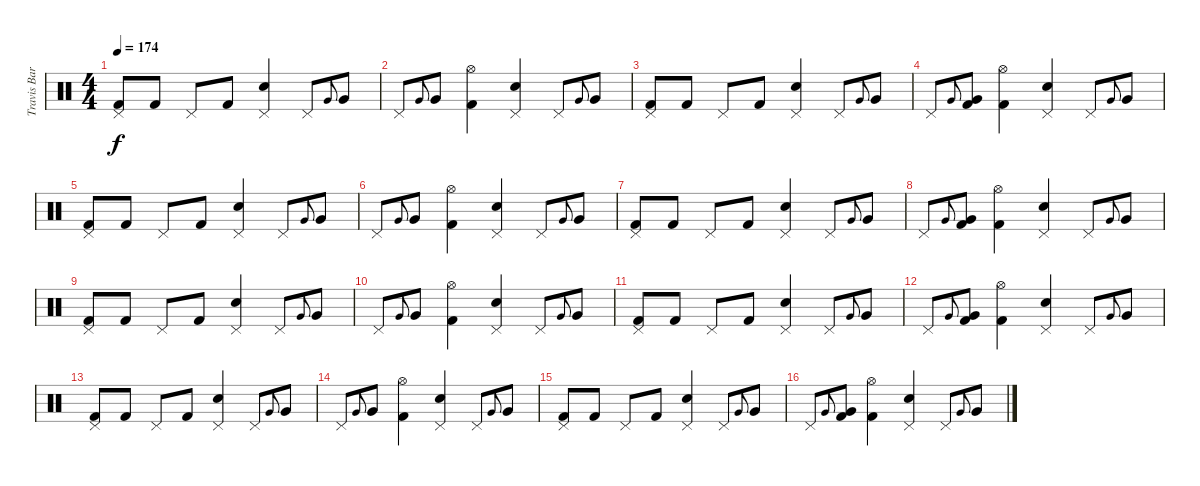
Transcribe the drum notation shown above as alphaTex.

\track ("Travis Barker - Drums" "Travis Bar") {instrument percussion}
\staff {score}
\articulation defaults
\ts (4 4)
\tempo 174
\clef neutral
\ks c
("Pedal Hi-Hat (hit)" "Kick (hit) 2").8{dy f} "Kick (hit) 2".8 "Pedal Hi-Hat (hit)".8 "Kick (hit) 2".8 ("Pedal Hi-Hat (hit)" "Electric Snare (hit)").4 "Pedal Hi-Hat (hit)".8 "Very Low Tom (hit)".8{gr onbeat} "Very Low Tom (hit)".8 |
"Pedal Hi-Hat (hit)".8 "Very Low Tom (hit)".8{gr onbeat} "Very Low Tom (hit)".8 ("Hi-Hat (open)" "Kick (hit) 2").4 ("Pedal Hi-Hat (hit)" "Electric Snare (hit)").4 "Pedal Hi-Hat (hit)".8 "Very Low Tom (hit)".8{gr onbeat} "Very Low Tom (hit)".8 |
("Pedal Hi-Hat (hit)" "Kick (hit) 2").8 "Kick (hit) 2".8 "Pedal Hi-Hat (hit)".8 "Kick (hit) 2".8 ("Pedal Hi-Hat (hit)" "Electric Snare (hit)").4 "Pedal Hi-Hat (hit)".8 "Very Low Tom (hit)".8{gr onbeat} "Very Low Tom (hit)".8 |
"Pedal Hi-Hat (hit)".8 "Very Low Tom (hit)".8{gr onbeat} ("Very Low Tom (hit)" "Kick (hit) 2").8 ("Hi-Hat (open)" "Kick (hit) 2").4 ("Pedal Hi-Hat (hit)" "Electric Snare (hit)").4 "Pedal Hi-Hat (hit)".8 "Very Low Tom (hit)".8{gr onbeat} "Very Low Tom (hit)".8 |
("Pedal Hi-Hat (hit)" "Kick (hit) 2").8 "Kick (hit) 2".8 "Pedal Hi-Hat (hit)".8 "Kick (hit) 2".8 ("Pedal Hi-Hat (hit)" "Electric Snare (hit)").4 "Pedal Hi-Hat (hit)".8 "Very Low Tom (hit)".8{gr onbeat} "Very Low Tom (hit)".8 |
"Pedal Hi-Hat (hit)".8 "Very Low Tom (hit)".8{gr onbeat} "Very Low Tom (hit)".8 ("Hi-Hat (open)" "Kick (hit) 2").4 ("Pedal Hi-Hat (hit)" "Electric Snare (hit)").4 "Pedal Hi-Hat (hit)".8 "Very Low Tom (hit)".8{gr onbeat} "Very Low Tom (hit)".8 |
("Pedal Hi-Hat (hit)" "Kick (hit) 2").8 "Kick (hit) 2".8 "Pedal Hi-Hat (hit)".8 "Kick (hit) 2".8 ("Pedal Hi-Hat (hit)" "Electric Snare (hit)").4 "Pedal Hi-Hat (hit)".8 "Very Low Tom (hit)".8{gr onbeat} "Very Low Tom (hit)".8 |
"Pedal Hi-Hat (hit)".8 "Very Low Tom (hit)".8{gr onbeat} ("Very Low Tom (hit)" "Kick (hit) 2").8 ("Hi-Hat (open)" "Kick (hit) 2").4 ("Pedal Hi-Hat (hit)" "Electric Snare (hit)").4 "Pedal Hi-Hat (hit)".8 "Very Low Tom (hit)".8{gr onbeat} "Very Low Tom (hit)".8 |
("Pedal Hi-Hat (hit)" "Kick (hit) 2").8 "Kick (hit) 2".8 "Pedal Hi-Hat (hit)".8 "Kick (hit) 2".8 ("Pedal Hi-Hat (hit)" "Electric Snare (hit)").4 "Pedal Hi-Hat (hit)".8 "Very Low Tom (hit)".8{gr onbeat} "Very Low Tom (hit)".8 |
"Pedal Hi-Hat (hit)".8 "Very Low Tom (hit)".8{gr onbeat} "Very Low Tom (hit)".8 ("Hi-Hat (open)" "Kick (hit) 2").4 ("Pedal Hi-Hat (hit)" "Electric Snare (hit)").4 "Pedal Hi-Hat (hit)".8 "Very Low Tom (hit)".8{gr onbeat} "Very Low Tom (hit)".8 |
("Pedal Hi-Hat (hit)" "Kick (hit) 2").8 "Kick (hit) 2".8 "Pedal Hi-Hat (hit)".8 "Kick (hit) 2".8 ("Pedal Hi-Hat (hit)" "Electric Snare (hit)").4 "Pedal Hi-Hat (hit)".8 "Very Low Tom (hit)".8{gr onbeat} "Very Low Tom (hit)".8 |
"Pedal Hi-Hat (hit)".8 "Very Low Tom (hit)".8{gr onbeat} ("Very Low Tom (hit)" "Kick (hit) 2").8 ("Hi-Hat (open)" "Kick (hit) 2").4 ("Pedal Hi-Hat (hit)" "Electric Snare (hit)").4 "Pedal Hi-Hat (hit)".8 "Very Low Tom (hit)".8{gr onbeat} "Very Low Tom (hit)".8 |
("Pedal Hi-Hat (hit)" "Kick (hit) 2").8 "Kick (hit) 2".8 "Pedal Hi-Hat (hit)".8 "Kick (hit) 2".8 ("Pedal Hi-Hat (hit)" "Electric Snare (hit)").4 "Pedal Hi-Hat (hit)".8 "Very Low Tom (hit)".8{gr onbeat} "Very Low Tom (hit)".8 |
"Pedal Hi-Hat (hit)".8 "Very Low Tom (hit)".8{gr onbeat} "Very Low Tom (hit)".8 ("Hi-Hat (open)" "Kick (hit) 2").4 ("Pedal Hi-Hat (hit)" "Electric Snare (hit)").4 "Pedal Hi-Hat (hit)".8 "Very Low Tom (hit)".8{gr onbeat} "Very Low Tom (hit)".8 |
("Pedal Hi-Hat (hit)" "Kick (hit) 2").8 "Kick (hit) 2".8 "Pedal Hi-Hat (hit)".8 "Kick (hit) 2".8 ("Pedal Hi-Hat (hit)" "Electric Snare (hit)").4 "Pedal Hi-Hat (hit)".8 "Very Low Tom (hit)".8{gr onbeat} "Very Low Tom (hit)".8 |
"Pedal Hi-Hat (hit)".8 "Very Low Tom (hit)".8{gr onbeat} ("Very Low Tom (hit)" "Kick (hit) 2").8 ("Hi-Hat (open)" "Kick (hit) 2").4 ("Pedal Hi-Hat (hit)" "Electric Snare (hit)").4 "Pedal Hi-Hat (hit)".8 "Very Low Tom (hit)".8{gr onbeat} "Very Low Tom (hit)".8
